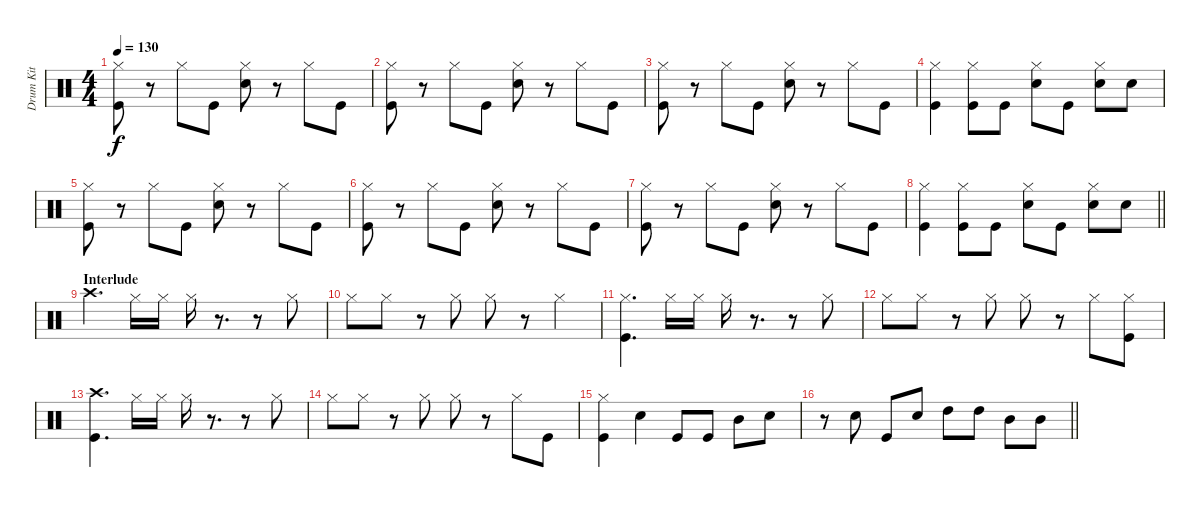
\track ("Drum Kit" "Drum Kit") {instrument percussion}
\staff {score}
\articulation defaults
\ts (4 4)
\tempo 130
\clef neutral
\ks c
("Hi-Hat (closed)" "Kick (hit)").8{dy f} r.8 "Hi-Hat (closed)".8 "Kick (hit)".8 ("Hi-Hat (closed)" "Snare (hit) 2").8 r.8 "Hi-Hat (closed)".8 "Kick (hit)".8 |
("Hi-Hat (closed)" "Kick (hit)").8 r.8 "Hi-Hat (closed)".8 "Kick (hit)".8 ("Hi-Hat (closed)" "Snare (hit) 2").8 r.8 "Hi-Hat (closed)".8 "Kick (hit)".8 |
("Hi-Hat (closed)" "Kick (hit)").8 r.8 "Hi-Hat (closed)".8 "Kick (hit)".8 ("Hi-Hat (closed)" "Snare (hit) 2").8 r.8 "Hi-Hat (closed)".8 "Kick (hit)".8 |
("Hi-Hat (closed)" "Kick (hit)").4 ("Hi-Hat (closed)" "Kick (hit)").8 "Kick (hit)".8 ("Hi-Hat (closed)" "Snare (hit) 2").8 "Kick (hit)".8 ("Hi-Hat (closed)" "Snare (hit) 2").8 "Snare (hit) 2".8 |
("Hi-Hat (closed)" "Kick (hit)").8 r.8 "Hi-Hat (closed)".8 "Kick (hit)".8 ("Hi-Hat (closed)" "Snare (hit) 2").8 r.8 "Hi-Hat (closed)".8 "Kick (hit)".8 |
("Hi-Hat (closed)" "Kick (hit)").8 r.8 "Hi-Hat (closed)".8 "Kick (hit)".8 ("Hi-Hat (closed)" "Snare (hit) 2").8 r.8 "Hi-Hat (closed)".8 "Kick (hit)".8 |
("Hi-Hat (closed)" "Kick (hit)").8 r.8 "Hi-Hat (closed)".8 "Kick (hit)".8 ("Hi-Hat (closed)" "Snare (hit) 2").8 r.8 "Hi-Hat (closed)".8 "Kick (hit)".8 |
\barLineRight lightlight
("Hi-Hat (closed)" "Kick (hit)").4 ("Hi-Hat (closed)" "Kick (hit)").8 "Kick (hit)".8 ("Hi-Hat (closed)" "Snare (hit) 2").8 "Kick (hit)".8 ("Hi-Hat (closed)" "Snare (hit) 2").8 "Snare (hit) 2".8 |
\section ("" "Interlude")
"Crash high (hit)".4{d} "Hi-Hat (closed)".16 "Hi-Hat (closed)".16 "Hi-Hat (closed)".16 r.8{d} r.8 "Hi-Hat (closed)".8 |
"Hi-Hat (closed)".8 "Hi-Hat (closed)".8 r.8 "Hi-Hat (closed)".8 "Hi-Hat (closed)".8 r.8 "Hi-Hat (closed)".4 |
("Hi-Hat (closed)" "Kick (hit)").4{d} "Hi-Hat (closed)".16 "Hi-Hat (closed)".16 "Hi-Hat (closed)".16 r.8{d} r.8 "Hi-Hat (closed)".8 |
"Hi-Hat (closed)".8 "Hi-Hat (closed)".8 r.8 "Hi-Hat (closed)".8 "Hi-Hat (closed)".8 r.8 "Hi-Hat (closed)".8 ("Hi-Hat (closed)" "Kick (hit)").8 |
("Crash high (hit)" "Kick (hit)").4{d} "Hi-Hat (closed)".16 "Hi-Hat (closed)".16 "Hi-Hat (closed)".16 r.8{d} r.8 "Hi-Hat (closed)".8 |
"Hi-Hat (closed)".8 "Hi-Hat (closed)".8 r.8 "Hi-Hat (closed)".8 "Hi-Hat (closed)".8 r.8 "Hi-Hat (closed)".8 "Kick (hit)".8 |
("Hi-Hat (closed)" "Kick (hit)").4 "Snare (hit) 2".4 "Kick (hit)".8 "Kick (hit)".8 "Mid Tom (hit)".8 "Snare (hit) 2".8 |
\barLineRight lightlight
r.8 "Snare (hit) 2".8 "Kick (hit)".8 "Snare (hit) 2".8 "High Tom (hit)".8 "High Tom (hit)".8 "Mid Tom (hit)".8 "Mid Tom (hit)".8
